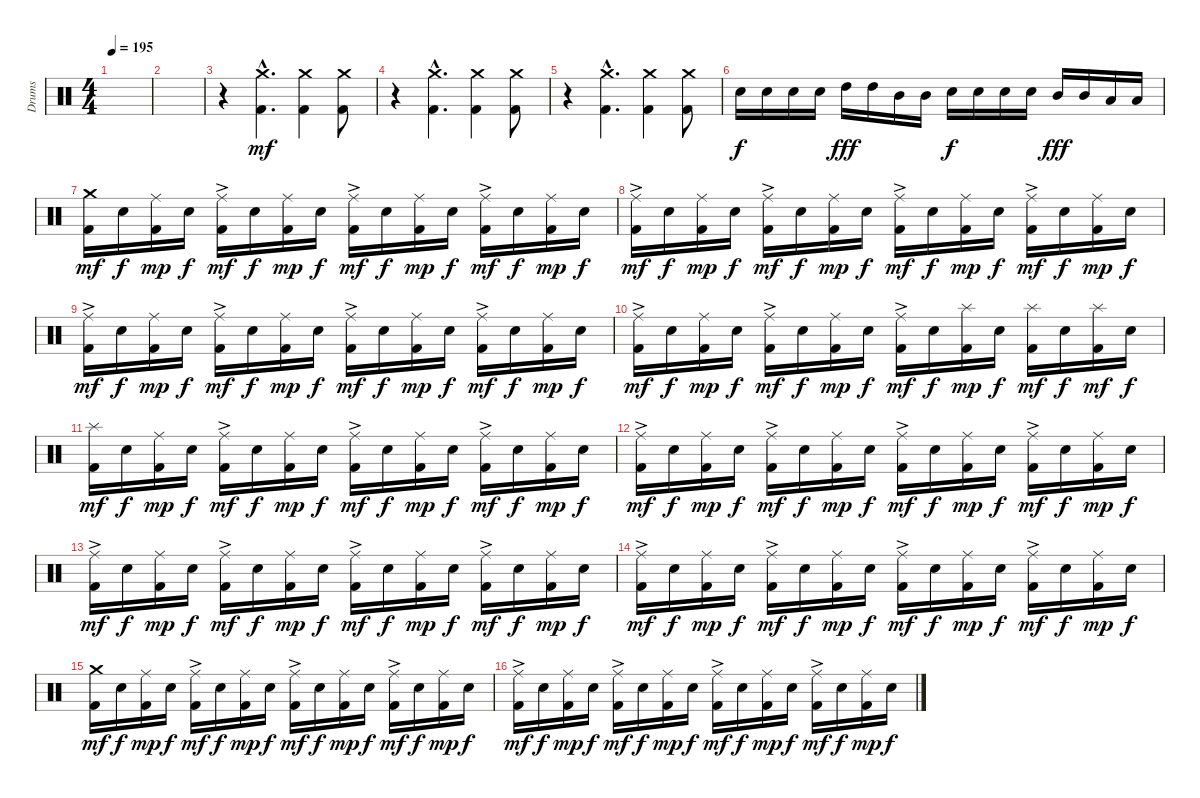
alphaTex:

\track ("Drums" "Drums") {instrument percussion}
\staff {score}
\articulation defaults
\ts (4 4)
\tempo 195
\clef neutral
\ks c
|
|
r.4 ("Crash medium (hit)"{hac pm} "Kick (hit) 2"{hac}).4{d dy mf} ("Crash medium (hit)"{pm} "Kick (hit) 2").4 ("Crash medium (hit)"{pm} "Kick (hit) 2").8 |
r.4 ("Crash medium (hit)"{hac pm} "Kick (hit) 2"{hac}).4{d} ("Crash medium (hit)"{pm} "Kick (hit) 2").4 ("Crash medium (hit)"{pm} "Kick (hit) 2").8 |
r.4 ("Crash medium (hit)"{hac pm} "Kick (hit) 2"{hac}).4{d} ("Crash medium (hit)" "Kick (hit) 2").4 ("Crash medium (hit)" "Kick (hit) 2").8 |
"Electric Snare (hit)".16{dy f} "Electric Snare (hit)".16 "Electric Snare (hit)".16 "Electric Snare (hit)".16 "High Tom (hit)".16{dy fff} "High Tom (hit)".16 "Mid Tom (hit)".16 "Mid Tom (hit)".16 "Electric Snare (hit)".16{dy f} "Electric Snare (hit)".16 "Electric Snare (hit)".16 "Electric Snare (hit)".16 "Mid Tom (hit)".16{dy fff} "Mid Tom (hit)".16 "Low Tom (hit)".16 "Low Tom (hit)".16 |
("Crash medium (hit)" "Kick (hit) 2").16{dy mf} "Electric Snare (hit)".16{dy f} ("Ride (middle)" "Kick (hit) 2").16{dy mp} "Electric Snare (hit)".16{dy f} ("Ride (middle)"{ac} "Kick (hit) 2").16{dy mf} "Electric Snare (hit)".16{dy f} ("Ride (middle)" "Kick (hit) 2").16{dy mp} "Electric Snare (hit)".16{dy f} ("Ride (middle)"{ac} "Kick (hit) 2").16{dy mf} "Electric Snare (hit)".16{dy f} ("Ride (middle)" "Kick (hit) 2").16{dy mp} "Electric Snare (hit)".16{dy f} ("Ride (middle)"{ac} "Kick (hit) 2").16{dy mf} "Electric Snare (hit)".16{dy f} ("Ride (middle)" "Kick (hit) 2").16{dy mp} "Electric Snare (hit)".16{dy f} |
("Ride (middle)"{ac} "Kick (hit) 2").16{dy mf} "Electric Snare (hit)".16{dy f} ("Ride (middle)" "Kick (hit) 2").16{dy mp} "Electric Snare (hit)".16{dy f} ("Ride (middle)"{ac} "Kick (hit) 2").16{dy mf} "Electric Snare (hit)".16{dy f} ("Ride (middle)" "Kick (hit) 2").16{dy mp} "Electric Snare (hit)".16{dy f} ("Ride (middle)"{ac} "Kick (hit) 2").16{dy mf} "Electric Snare (hit)".16{dy f} ("Ride (middle)" "Kick (hit) 2").16{dy mp} "Electric Snare (hit)".16{dy f} ("Ride (middle)"{ac} "Kick (hit) 2").16{dy mf} "Electric Snare (hit)".16{dy f} ("Ride (middle)" "Kick (hit) 2").16{dy mp} "Electric Snare (hit)".16{dy f} |
("Ride (middle)"{ac} "Kick (hit) 2").16{dy mf} "Electric Snare (hit)".16{dy f} ("Ride (middle)" "Kick (hit) 2").16{dy mp} "Electric Snare (hit)".16{dy f} ("Ride (middle)"{ac} "Kick (hit) 2").16{dy mf} "Electric Snare (hit)".16{dy f} ("Ride (middle)" "Kick (hit) 2").16{dy mp} "Electric Snare (hit)".16{dy f} ("Ride (middle)"{ac} "Kick (hit) 2").16{dy mf} "Electric Snare (hit)".16{dy f} ("Ride (middle)" "Kick (hit) 2").16{dy mp} "Electric Snare (hit)".16{dy f} ("Ride (middle)"{ac} "Kick (hit) 2").16{dy mf} "Electric Snare (hit)".16{dy f} ("Ride (middle)" "Kick (hit) 2").16{dy mp} "Electric Snare (hit)".16{dy f} |
("Ride (middle)"{ac} "Kick (hit) 2").16{dy mf} "Electric Snare (hit)".16{dy f} ("Ride (middle)" "Kick (hit) 2").16{dy mp} "Electric Snare (hit)".16{dy f} ("Ride (middle)"{ac} "Kick (hit) 2").16{dy mf} "Electric Snare (hit)".16{dy f} ("Ride (middle)" "Kick (hit) 2").16{dy mp} "Electric Snare (hit)".16{dy f} ("Ride (middle)"{ac} "Kick (hit) 2").16{dy mf} "Electric Snare (hit)".16{dy f} ("Splash (hit)" "Kick (hit) 2").16{dy mp} "Electric Snare (hit)".16{dy f} ("Splash (hit)" "Kick (hit) 2").16{dy mf} "Electric Snare (hit)".16{dy f} ("Splash (hit)" "Kick (hit) 2").16{dy mf} "Electric Snare (hit)".16{dy f} |
("Splash (hit)" "Kick (hit) 2").16{dy mf} "Electric Snare (hit)".16{dy f} ("Ride (middle)" "Kick (hit) 2").16{dy mp} "Electric Snare (hit)".16{dy f} ("Ride (middle)"{ac} "Kick (hit) 2").16{dy mf} "Electric Snare (hit)".16{dy f} ("Ride (middle)" "Kick (hit) 2").16{dy mp} "Electric Snare (hit)".16{dy f} ("Ride (middle)"{ac} "Kick (hit) 2").16{dy mf} "Electric Snare (hit)".16{dy f} ("Ride (middle)" "Kick (hit) 2").16{dy mp} "Electric Snare (hit)".16{dy f} ("Ride (middle)"{ac} "Kick (hit) 2").16{dy mf} "Electric Snare (hit)".16{dy f} ("Ride (middle)" "Kick (hit) 2").16{dy mp} "Electric Snare (hit)".16{dy f} |
("Ride (middle)"{ac} "Kick (hit) 2").16{dy mf} "Electric Snare (hit)".16{dy f} ("Ride (middle)" "Kick (hit) 2").16{dy mp} "Electric Snare (hit)".16{dy f} ("Ride (middle)"{ac} "Kick (hit) 2").16{dy mf} "Electric Snare (hit)".16{dy f} ("Ride (middle)" "Kick (hit) 2").16{dy mp} "Electric Snare (hit)".16{dy f} ("Ride (middle)"{ac} "Kick (hit) 2").16{dy mf} "Electric Snare (hit)".16{dy f} ("Ride (middle)" "Kick (hit) 2").16{dy mp} "Electric Snare (hit)".16{dy f} ("Ride (middle)"{ac} "Kick (hit) 2").16{dy mf} "Electric Snare (hit)".16{dy f} ("Ride (middle)" "Kick (hit) 2").16{dy mp} "Electric Snare (hit)".16{dy f} |
("Ride (middle)"{ac} "Kick (hit) 2").16{dy mf} "Electric Snare (hit)".16{dy f} ("Ride (middle)" "Kick (hit) 2").16{dy mp} "Electric Snare (hit)".16{dy f} ("Ride (middle)"{ac} "Kick (hit) 2").16{dy mf} "Electric Snare (hit)".16{dy f} ("Ride (middle)" "Kick (hit) 2").16{dy mp} "Electric Snare (hit)".16{dy f} ("Ride (middle)"{ac} "Kick (hit) 2").16{dy mf} "Electric Snare (hit)".16{dy f} ("Ride (middle)" "Kick (hit) 2").16{dy mp} "Electric Snare (hit)".16{dy f} ("Ride (middle)"{ac} "Kick (hit) 2").16{dy mf} "Electric Snare (hit)".16{dy f} ("Ride (middle)" "Kick (hit) 2").16{dy mp} "Electric Snare (hit)".16{dy f} |
("Ride (middle)"{ac} "Kick (hit) 2").16{dy mf} "Electric Snare (hit)".16{dy f} ("Ride (middle)" "Kick (hit) 2").16{dy mp} "Electric Snare (hit)".16{dy f} ("Ride (middle)"{ac} "Kick (hit) 2").16{dy mf} "Electric Snare (hit)".16{dy f} ("Ride (middle)" "Kick (hit) 2").16{dy mp} "Electric Snare (hit)".16{dy f} ("Ride (middle)"{ac} "Kick (hit) 2").16{dy mf} "Electric Snare (hit)".16{dy f} ("Ride (middle)" "Kick (hit) 2").16{dy mp} "Electric Snare (hit)".16{dy f} ("Ride (middle)"{ac} "Kick (hit) 2").16{dy mf} "Electric Snare (hit)".16{dy f} ("Ride (middle)" "Kick (hit) 2").16{dy mp} "Electric Snare (hit)".16{dy f} |
("Crash medium (hit)" "Kick (hit) 2").16{dy mf} "Electric Snare (hit)".16{dy f} ("Ride (middle)" "Kick (hit) 2").16{dy mp} "Electric Snare (hit)".16{dy f} ("Ride (middle)"{ac} "Kick (hit) 2").16{dy mf} "Electric Snare (hit)".16{dy f} ("Ride (middle)" "Kick (hit) 2").16{dy mp} "Electric Snare (hit)".16{dy f} ("Ride (middle)"{ac} "Kick (hit) 2").16{dy mf} "Electric Snare (hit)".16{dy f} ("Ride (middle)" "Kick (hit) 2").16{dy mp} "Electric Snare (hit)".16{dy f} ("Ride (middle)"{ac} "Kick (hit) 2").16{dy mf} "Electric Snare (hit)".16{dy f} ("Ride (middle)" "Kick (hit) 2").16{dy mp} "Electric Snare (hit)".16{dy f} |
("Ride (middle)"{ac} "Kick (hit) 2").16{dy mf} "Electric Snare (hit)".16{dy f} ("Ride (middle)" "Kick (hit) 2").16{dy mp} "Electric Snare (hit)".16{dy f} ("Ride (middle)"{ac} "Kick (hit) 2").16{dy mf} "Electric Snare (hit)".16{dy f} ("Ride (middle)" "Kick (hit) 2").16{dy mp} "Electric Snare (hit)".16{dy f} ("Ride (middle)"{ac} "Kick (hit) 2").16{dy mf} "Electric Snare (hit)".16{dy f} ("Ride (middle)" "Kick (hit) 2").16{dy mp} "Electric Snare (hit)".16{dy f} ("Ride (middle)"{ac} "Kick (hit) 2").16{dy mf} "Electric Snare (hit)".16{dy f} ("Ride (middle)" "Kick (hit) 2").16{dy mp} "Electric Snare (hit)".16{dy f}
